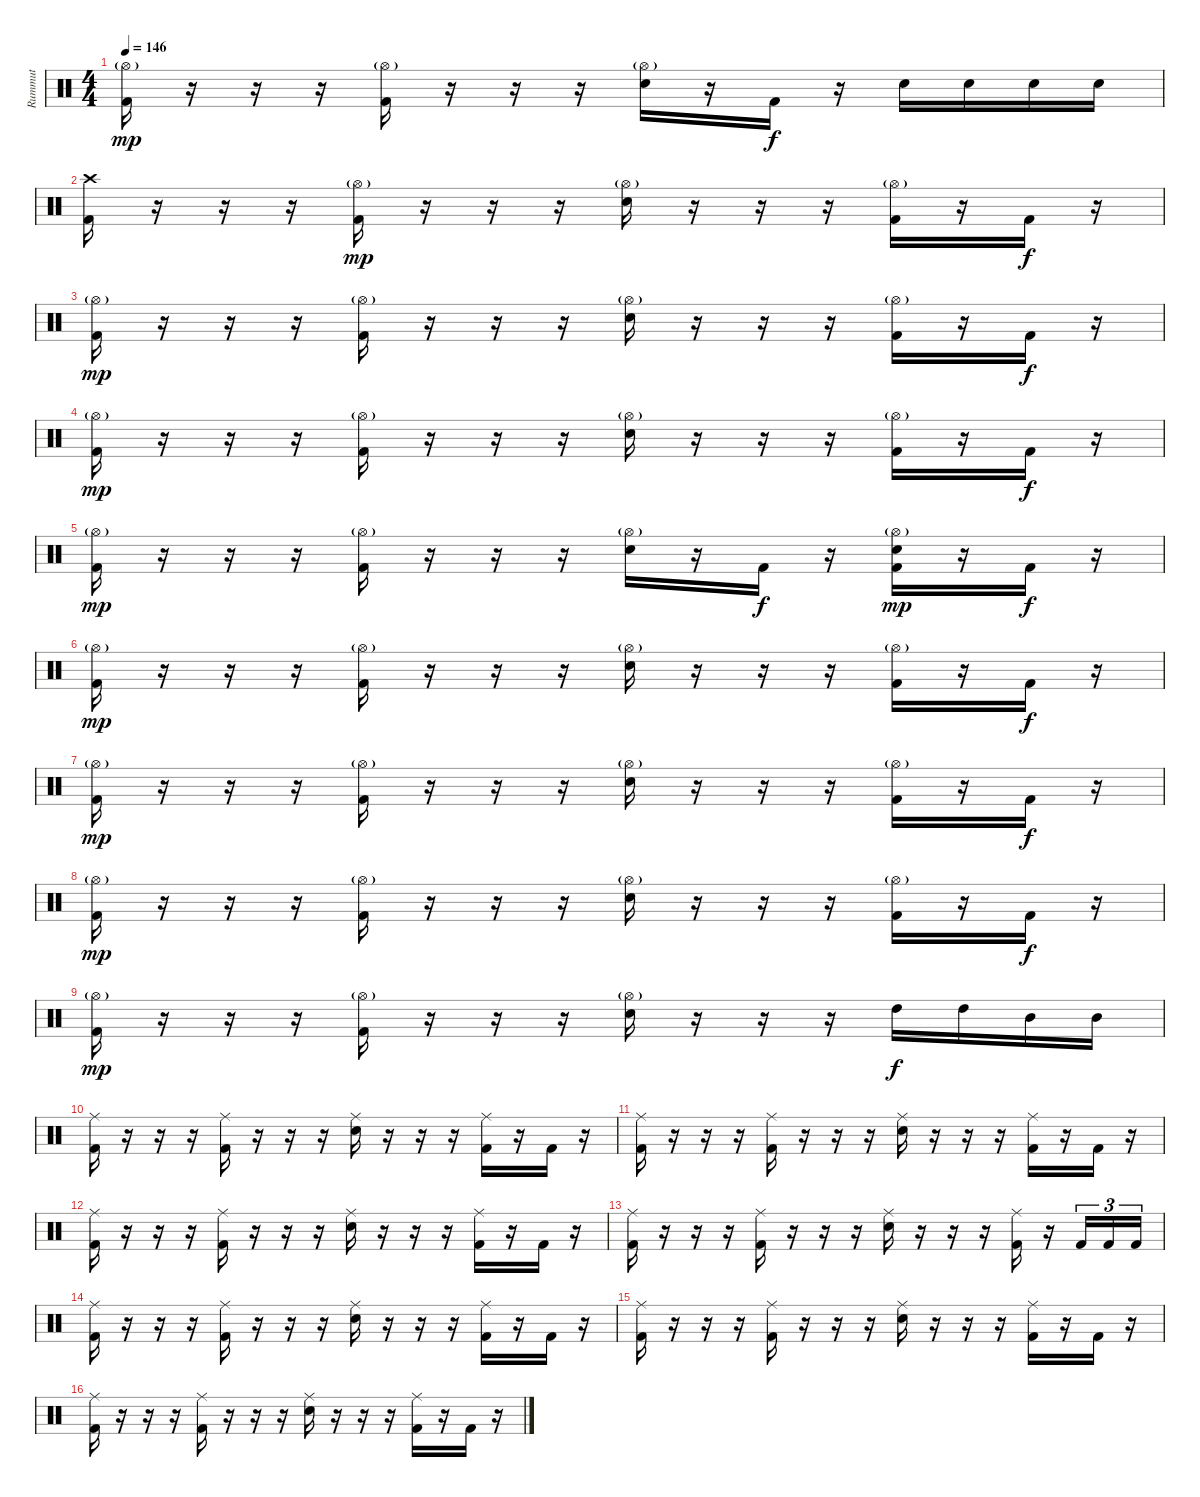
\track ("Rummut" "Rummut") {instrument percussion}
\staff {score}
\articulation defaults
\ts (4 4)
\tempo 146
\clef neutral
\ks c
("Hi-Hat (open)"{g} "Kick (hit) 2").16{dy mp} r.16 r.16 r.16 ("Hi-Hat (open)"{g} "Kick (hit) 2").16 r.16 r.16 r.16 ("Hi-Hat (open)"{g} "Electric Snare (hit)").16 r.16 "Kick (hit) 2".16{dy f} r.16 "Electric Snare (hit)".16 "Electric Snare (hit)".16 "Electric Snare (hit)".16 "Electric Snare (hit)".16 |
("Crash high (hit)" "Kick (hit) 2").16 r.16 r.16 r.16 ("Hi-Hat (open)"{g} "Kick (hit) 2").16{dy mp} r.16 r.16 r.16 ("Hi-Hat (open)"{g} "Electric Snare (hit)").16 r.16 r.16 r.16 ("Hi-Hat (open)"{g} "Kick (hit) 2").16 r.16 "Kick (hit) 2".16{dy f} r.16 |
("Hi-Hat (open)"{g} "Kick (hit) 2").16{dy mp} r.16 r.16 r.16 ("Hi-Hat (open)"{g} "Kick (hit) 2").16 r.16 r.16 r.16 ("Hi-Hat (open)"{g} "Electric Snare (hit)").16 r.16 r.16 r.16 ("Hi-Hat (open)"{g} "Kick (hit) 2").16 r.16 "Kick (hit) 2".16{dy f} r.16 |
("Hi-Hat (open)"{g} "Kick (hit) 2").16{dy mp} r.16 r.16 r.16 ("Hi-Hat (open)"{g} "Kick (hit) 2").16 r.16 r.16 r.16 ("Hi-Hat (open)"{g} "Electric Snare (hit)").16 r.16 r.16 r.16 ("Hi-Hat (open)"{g} "Kick (hit) 2").16 r.16 "Kick (hit) 2".16{dy f} r.16 |
("Hi-Hat (open)"{g} "Kick (hit) 2").16{dy mp} r.16 r.16 r.16 ("Hi-Hat (open)"{g} "Kick (hit) 2").16 r.16 r.16 r.16 ("Hi-Hat (open)"{g} "Electric Snare (hit)").16 r.16 "Kick (hit) 2".16{dy f} r.16 ("Hi-Hat (open)"{g} "Electric Snare (hit)" "Kick (hit) 2").16{dy mp} r.16 "Kick (hit) 2".16{dy f} r.16 |
("Hi-Hat (open)"{g} "Kick (hit) 2").16{dy mp} r.16 r.16 r.16 ("Hi-Hat (open)"{g} "Kick (hit) 2").16 r.16 r.16 r.16 ("Hi-Hat (open)"{g} "Electric Snare (hit)").16 r.16 r.16 r.16 ("Hi-Hat (open)"{g} "Kick (hit) 2").16 r.16 "Kick (hit) 2".16{dy f} r.16 |
("Hi-Hat (open)"{g} "Kick (hit) 2").16{dy mp} r.16 r.16 r.16 ("Hi-Hat (open)"{g} "Kick (hit) 2").16 r.16 r.16 r.16 ("Hi-Hat (open)"{g} "Electric Snare (hit)").16 r.16 r.16 r.16 ("Hi-Hat (open)"{g} "Kick (hit) 2").16 r.16 "Kick (hit) 2".16{dy f} r.16 |
("Hi-Hat (open)"{g} "Kick (hit) 2").16{dy mp} r.16 r.16 r.16 ("Hi-Hat (open)"{g} "Kick (hit) 2").16 r.16 r.16 r.16 ("Hi-Hat (open)"{g} "Electric Snare (hit)").16 r.16 r.16 r.16 ("Hi-Hat (open)"{g} "Kick (hit) 2").16 r.16 "Kick (hit) 2".16{dy f} r.16 |
("Hi-Hat (open)"{g} "Kick (hit) 2").16{dy mp} r.16 r.16 r.16 ("Hi-Hat (open)"{g} "Kick (hit) 2").16 r.16 r.16 r.16 ("Hi-Hat (open)"{g} "Electric Snare (hit)").16 r.16 r.16 r.16 "High Tom (hit)".16{dy f} "High Tom (hit)".16 "Mid Tom (hit)".16 "Mid Tom (hit)".16 |
\section ("" "")
("Ride (middle)" "Kick (hit) 2").16 r.16 r.16 r.16 ("Ride (middle)" "Kick (hit) 2").16 r.16 r.16 r.16 ("Ride (middle)" "Electric Snare (hit)").16 r.16 r.16 r.16 ("Ride (middle)" "Kick (hit) 2").16 r.16 "Kick (hit) 2".16 r.16 |
("Ride (middle)" "Kick (hit) 2").16 r.16 r.16 r.16 ("Ride (middle)" "Kick (hit) 2").16 r.16 r.16 r.16 ("Ride (middle)" "Electric Snare (hit)").16 r.16 r.16 r.16 ("Ride (middle)" "Kick (hit) 2").16 r.16 "Kick (hit) 2".16 r.16 |
("Ride (middle)" "Kick (hit) 2").16 r.16 r.16 r.16 ("Ride (middle)" "Kick (hit) 2").16 r.16 r.16 r.16 ("Ride (middle)" "Electric Snare (hit)").16 r.16 r.16 r.16 ("Ride (middle)" "Kick (hit) 2").16 r.16 "Kick (hit) 2".16 r.16 |
("Ride (middle)" "Kick (hit) 2").16 r.16 r.16 r.16 ("Ride (middle)" "Kick (hit) 2").16 r.16 r.16 r.16 ("Ride (middle)" "Electric Snare (hit)").16 r.16 r.16 r.16 ("Ride (middle)" "Kick (hit) 2").16 r.16 "Kick (hit) 2".16{tu (3 2)} "Kick (hit) 2".16{tu (3 2)} "Kick (hit) 2".16{tu (3 2)} |
("Ride (middle)" "Kick (hit) 2").16 r.16 r.16 r.16 ("Ride (middle)" "Kick (hit) 2").16 r.16 r.16 r.16 ("Ride (middle)" "Electric Snare (hit)").16 r.16 r.16 r.16 ("Ride (middle)" "Kick (hit) 2").16 r.16 "Kick (hit) 2".16 r.16 |
("Ride (middle)" "Kick (hit) 2").16 r.16 r.16 r.16 ("Ride (middle)" "Kick (hit) 2").16 r.16 r.16 r.16 ("Ride (middle)" "Electric Snare (hit)").16 r.16 r.16 r.16 ("Ride (middle)" "Kick (hit) 2").16 r.16 "Kick (hit) 2".16 r.16 |
("Ride (middle)" "Kick (hit) 2").16 r.16 r.16 r.16 ("Ride (middle)" "Kick (hit) 2").16 r.16 r.16 r.16 ("Ride (middle)" "Electric Snare (hit)").16 r.16 r.16 r.16 ("Ride (middle)" "Kick (hit) 2").16 r.16 "Kick (hit) 2".16 r.16
